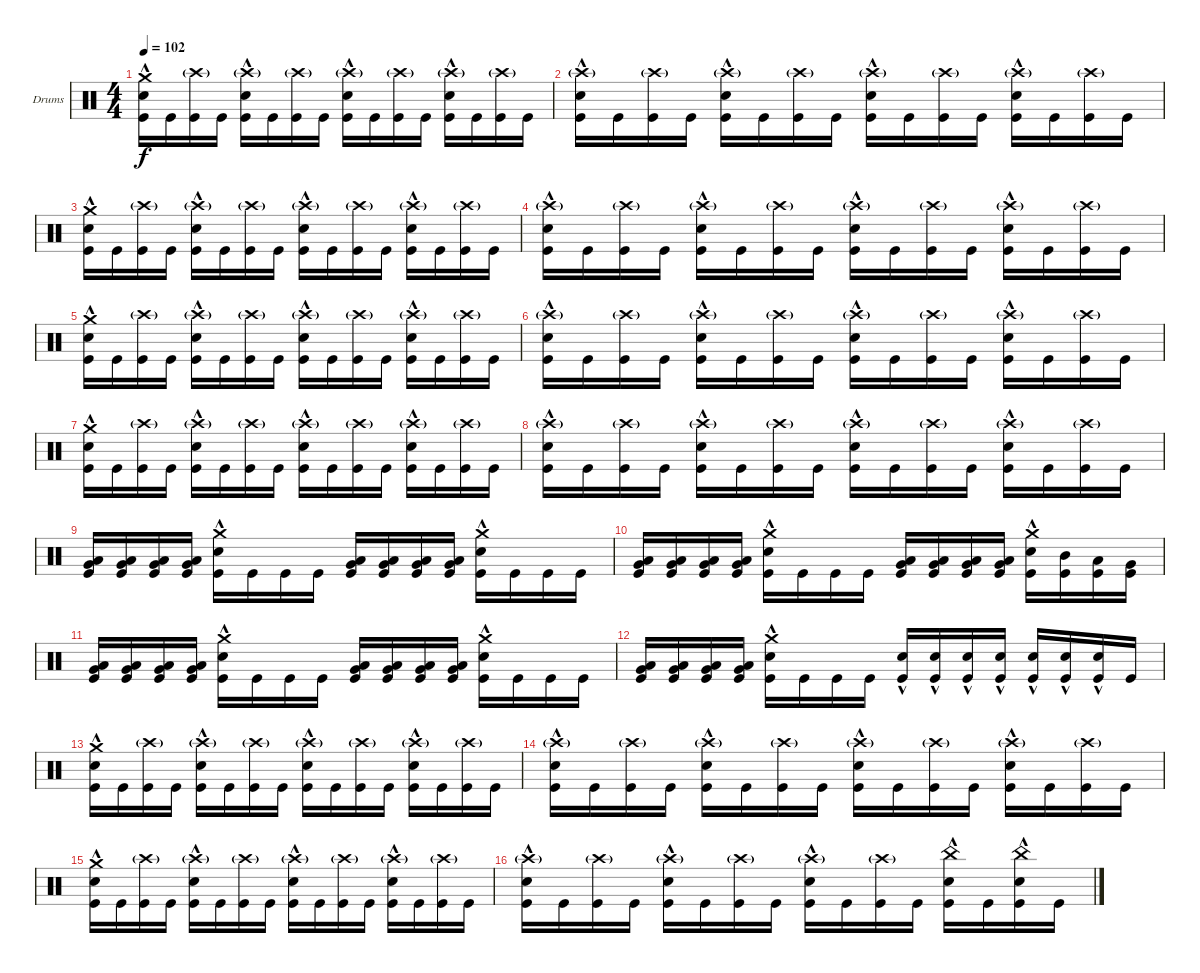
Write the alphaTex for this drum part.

\bracketExtendMode groupsimilarinstruments
\firstSystemTrackNameOrientation horizontal
\otherSystemsTrackNameOrientation horizontal
\track ("Drumkit" "Drums") {instrument percussion}
\staff {score}
\articulation defaults
\ts (4 4)
\tempo 102
\clef neutral
\scale
0.333333
\ks c
("Kick (hit)" "Snare (hit) 2"{hac} "Crash medium (hit)").16{dy f} "Kick (hit)".16 ("Kick (hit)" "Crash high (hit)"{g}).16 "Kick (hit)".16 ("Kick (hit)" "Snare (hit) 2"{hac} "Crash high (hit)"{g}).16 "Kick (hit)".16 ("Kick (hit)" "Crash high (hit)"{g}).16 "Kick (hit)".16 ("Kick (hit)" "Snare (hit) 2"{hac} "Crash high (hit)"{g}).16 "Kick (hit)".16 ("Kick (hit)" "Crash high (hit)"{g}).16 "Kick (hit)".16 ("Kick (hit)" "Snare (hit) 2"{hac} "Crash high (hit)"{g}).16 "Kick (hit)".16 ("Kick (hit)" "Crash high (hit)"{g}).16 "Kick (hit)".16 |
\scale
0.333333 ("Kick (hit)" "Snare (hit) 2"{hac} "Crash high (hit)"{g}).16 "Kick (hit)".16 ("Kick (hit)" "Crash high (hit)"{g}).16 "Kick (hit)".16 ("Kick (hit)" "Snare (hit) 2"{hac} "Crash high (hit)"{g}).16 "Kick (hit)".16 ("Kick (hit)" "Crash high (hit)"{g}).16 "Kick (hit)".16 ("Kick (hit)" "Snare (hit) 2"{hac} "Crash high (hit)"{g}).16 "Kick (hit)".16 ("Kick (hit)" "Crash high (hit)"{g}).16 "Kick (hit)".16 ("Kick (hit)" "Snare (hit) 2"{hac} "Crash high (hit)"{g}).16 "Kick (hit)".16 ("Kick (hit)" "Crash high (hit)"{g}).16 "Kick (hit)".16 |
\scale
0.333333 ("Kick (hit)" "Snare (hit) 2"{hac} "Crash medium (hit)").16 "Kick (hit)".16 ("Kick (hit)" "Crash high (hit)"{g}).16 "Kick (hit)".16 ("Kick (hit)" "Snare (hit) 2"{hac} "Crash high (hit)"{g}).16 "Kick (hit)".16 ("Kick (hit)" "Crash high (hit)"{g}).16 "Kick (hit)".16 ("Kick (hit)" "Snare (hit) 2"{hac} "Crash high (hit)"{g}).16 "Kick (hit)".16 ("Kick (hit)" "Crash high (hit)"{g}).16 "Kick (hit)".16 ("Kick (hit)" "Snare (hit) 2"{hac} "Crash high (hit)"{g}).16 "Kick (hit)".16 ("Kick (hit)" "Crash high (hit)"{g}).16 "Kick (hit)".16 |
\scale
0.333333 ("Kick (hit)" "Snare (hit) 2"{hac} "Crash high (hit)"{g}).16 "Kick (hit)".16 ("Kick (hit)" "Crash high (hit)"{g}).16 "Kick (hit)".16 ("Kick (hit)" "Snare (hit) 2"{hac} "Crash high (hit)"{g}).16 "Kick (hit)".16 ("Kick (hit)" "Crash high (hit)"{g}).16 "Kick (hit)".16 ("Kick (hit)" "Snare (hit) 2"{hac} "Crash high (hit)"{g}).16 "Kick (hit)".16 ("Kick (hit)" "Crash high (hit)"{g}).16 "Kick (hit)".16 ("Kick (hit)" "Snare (hit) 2"{hac} "Crash high (hit)"{g}).16 "Kick (hit)".16 ("Kick (hit)" "Crash high (hit)"{g}).16 "Kick (hit)".16 |
\scale
0.333333 ("Kick (hit)" "Snare (hit) 2"{hac} "Crash medium (hit)").16 "Kick (hit)".16 ("Kick (hit)" "Crash high (hit)"{g}).16 "Kick (hit)".16 ("Kick (hit)" "Snare (hit) 2"{hac} "Crash high (hit)"{g}).16 "Kick (hit)".16 ("Kick (hit)" "Crash high (hit)"{g}).16 "Kick (hit)".16 ("Kick (hit)" "Snare (hit) 2"{hac} "Crash high (hit)"{g}).16 "Kick (hit)".16 ("Kick (hit)" "Crash high (hit)"{g}).16 "Kick (hit)".16 ("Kick (hit)" "Snare (hit) 2"{hac} "Crash high (hit)"{g}).16 "Kick (hit)".16 ("Kick (hit)" "Crash high (hit)"{g}).16 "Kick (hit)".16 |
\scale
0.333333 ("Kick (hit)" "Snare (hit) 2"{hac} "Crash high (hit)"{g}).16 "Kick (hit)".16 ("Kick (hit)" "Crash high (hit)"{g}).16 "Kick (hit)".16 ("Kick (hit)" "Snare (hit) 2"{hac} "Crash high (hit)"{g}).16 "Kick (hit)".16 ("Kick (hit)" "Crash high (hit)"{g}).16 "Kick (hit)".16 ("Kick (hit)" "Snare (hit) 2"{hac} "Crash high (hit)"{g}).16 "Kick (hit)".16 ("Kick (hit)" "Crash high (hit)"{g}).16 "Kick (hit)".16 ("Kick (hit)" "Snare (hit) 2"{hac} "Crash high (hit)"{g}).16 "Kick (hit)".16 ("Kick (hit)" "Crash high (hit)"{g}).16 "Kick (hit)".16 |
\scale
0.333333 ("Kick (hit)" "Snare (hit) 2"{hac} "Crash medium (hit)").16 "Kick (hit)".16 ("Kick (hit)" "Crash high (hit)"{g}).16 "Kick (hit)".16 ("Kick (hit)" "Snare (hit) 2"{hac} "Crash high (hit)"{g}).16 "Kick (hit)".16 ("Kick (hit)" "Crash high (hit)"{g}).16 "Kick (hit)".16 ("Kick (hit)" "Snare (hit) 2"{hac} "Crash high (hit)"{g}).16 "Kick (hit)".16 ("Kick (hit)" "Crash high (hit)"{g}).16 "Kick (hit)".16 ("Kick (hit)" "Snare (hit) 2"{hac} "Crash high (hit)"{g}).16 "Kick (hit)".16 ("Kick (hit)" "Crash high (hit)"{g}).16 "Kick (hit)".16 |
\scale
0.333333 ("Kick (hit)" "Snare (hit) 2"{hac} "Crash high (hit)"{g}).16 "Kick (hit)".16 ("Kick (hit)" "Crash high (hit)"{g}).16 "Kick (hit)".16 ("Kick (hit)" "Snare (hit) 2"{hac} "Crash high (hit)"{g}).16 "Kick (hit)".16 ("Kick (hit)" "Crash high (hit)"{g}).16 "Kick (hit)".16 ("Kick (hit)" "Snare (hit) 2"{hac} "Crash high (hit)"{g}).16 "Kick (hit)".16 ("Kick (hit)" "Crash high (hit)"{g}).16 "Kick (hit)".16 ("Kick (hit)" "Snare (hit) 2"{hac} "Crash high (hit)"{g}).16 "Kick (hit)".16 ("Kick (hit)" "Crash high (hit)"{g}).16 "Kick (hit)".16 |
\scale
0.333333 ("Kick (hit)" "Very Low Tom (hit)" "Low Tom (hit)").16 ("Kick (hit)" "Very Low Tom (hit)" "Low Tom (hit)").16 ("Kick (hit)" "Very Low Tom (hit)" "Low Tom (hit)").16 ("Kick (hit)" "Very Low Tom (hit)" "Low Tom (hit)").16 ("Kick (hit)" "Snare (hit) 2"{hac} "Crash medium (hit)").16 "Kick (hit)".16 "Kick (hit)".16 "Kick (hit)".16 ("Kick (hit)" "Very Low Tom (hit)" "Low Tom (hit)").16 ("Kick (hit)" "Very Low Tom (hit)" "Low Tom (hit)").16 ("Kick (hit)" "Very Low Tom (hit)" "Low Tom (hit)").16 ("Kick (hit)" "Very Low Tom (hit)" "Low Tom (hit)").16 ("Kick (hit)" "Snare (hit) 2"{hac} "Crash medium (hit)").16 "Kick (hit)".16 "Kick (hit)".16 "Kick (hit)".16 |
\scale
0.333333 ("Kick (hit)" "Very Low Tom (hit)" "Low Tom (hit)").16 ("Kick (hit)" "Very Low Tom (hit)" "Low Tom (hit)").16 ("Kick (hit)" "Very Low Tom (hit)" "Low Tom (hit)").16 ("Kick (hit)" "Very Low Tom (hit)" "Low Tom (hit)").16 ("Kick (hit)" "Snare (hit) 2"{hac} "Crash medium (hit)").16 "Kick (hit)".16 "Kick (hit)".16 "Kick (hit)".16 ("Kick (hit)" "Very Low Tom (hit)" "Low Tom (hit)").16 ("Kick (hit)" "Very Low Tom (hit)" "Low Tom (hit)").16 ("Kick (hit)" "Very Low Tom (hit)" "Low Tom (hit)").16 ("Kick (hit)" "Very Low Tom (hit)" "Low Tom (hit)").16 ("Kick (hit)" "Snare (hit) 2"{hac} "Crash medium (hit)").16 ("Kick (hit)" "Mid Tom (hit)").16 ("Kick (hit)" "Low Tom (hit)").16 ("Kick (hit)" "Very Low Tom (hit)").16 |
\scale
0.333333 ("Kick (hit)" "Very Low Tom (hit)" "Low Tom (hit)").16 ("Kick (hit)" "Very Low Tom (hit)" "Low Tom (hit)").16 ("Kick (hit)" "Very Low Tom (hit)" "Low Tom (hit)").16 ("Kick (hit)" "Very Low Tom (hit)" "Low Tom (hit)").16 ("Kick (hit)" "Snare (hit) 2"{hac} "Crash medium (hit)").16 "Kick (hit)".16 "Kick (hit)".16 "Kick (hit)".16 ("Kick (hit)" "Very Low Tom (hit)" "Low Tom (hit)").16 ("Kick (hit)" "Very Low Tom (hit)" "Low Tom (hit)").16 ("Kick (hit)" "Very Low Tom (hit)" "Low Tom (hit)").16 ("Kick (hit)" "Very Low Tom (hit)" "Low Tom (hit)").16 ("Kick (hit)" "Snare (hit) 2"{hac} "Crash medium (hit)").16 "Kick (hit)".16 "Kick (hit)".16 "Kick (hit)".16 |
\scale
0.333333 ("Kick (hit)" "Very Low Tom (hit)" "Low Tom (hit)").16 ("Kick (hit)" "Very Low Tom (hit)" "Low Tom (hit)").16 ("Kick (hit)" "Very Low Tom (hit)" "Low Tom (hit)").16 ("Kick (hit)" "Very Low Tom (hit)" "Low Tom (hit)").16 ("Kick (hit)" "Snare (hit) 2"{hac} "Crash medium (hit)").16 "Kick (hit)".16 "Kick (hit)".16 "Kick (hit)".16 ("Kick (hit)" "Snare (hit) 2"{hac}).16 ("Kick (hit)" "Snare (hit) 2"{hac}).16 ("Kick (hit)" "Snare (hit) 2"{hac}).16 ("Kick (hit)" "Snare (hit) 2"{hac}).16 ("Kick (hit)" "Snare (hit) 2"{hac}).16 ("Kick (hit)" "Snare (hit) 2"{hac}).16 ("Kick (hit)" "Snare (hit) 2"{hac}).16 "Kick (hit)".16 |
\scale
0.333333 ("Kick (hit)" "Snare (hit) 2"{hac} "Crash medium (hit)").16 "Kick (hit)".16 ("Kick (hit)" "Crash high (hit)"{g}).16 "Kick (hit)".16 ("Kick (hit)" "Snare (hit) 2"{hac} "Crash high (hit)"{g}).16 "Kick (hit)".16 ("Kick (hit)" "Crash high (hit)"{g}).16 "Kick (hit)".16 ("Kick (hit)" "Snare (hit) 2"{hac} "Crash high (hit)"{g}).16 "Kick (hit)".16 ("Kick (hit)" "Crash high (hit)"{g}).16 "Kick (hit)".16 ("Kick (hit)" "Snare (hit) 2"{hac} "Crash high (hit)"{g}).16 "Kick (hit)".16 ("Kick (hit)" "Crash high (hit)"{g}).16 "Kick (hit)".16 |
\scale
0.333333 ("Kick (hit)" "Snare (hit) 2"{hac} "Crash high (hit)"{g}).16 "Kick (hit)".16 ("Kick (hit)" "Crash high (hit)"{g}).16 "Kick (hit)".16 ("Kick (hit)" "Snare (hit) 2"{hac} "Crash high (hit)"{g}).16 "Kick (hit)".16 ("Kick (hit)" "Crash high (hit)"{g}).16 "Kick (hit)".16 ("Kick (hit)" "Snare (hit) 2"{hac} "Crash high (hit)"{g}).16 "Kick (hit)".16 ("Kick (hit)" "Crash high (hit)"{g}).16 "Kick (hit)".16 ("Kick (hit)" "Snare (hit) 2"{hac} "Crash high (hit)"{g}).16 "Kick (hit)".16 ("Kick (hit)" "Crash high (hit)"{g}).16 "Kick (hit)".16 |
\scale
0.333333 ("Kick (hit)" "Snare (hit) 2"{hac} "Crash medium (hit)").16 "Kick (hit)".16 ("Kick (hit)" "Crash high (hit)"{g}).16 "Kick (hit)".16 ("Kick (hit)" "Snare (hit) 2"{hac} "Crash high (hit)"{g}).16 "Kick (hit)".16 ("Kick (hit)" "Crash high (hit)"{g}).16 "Kick (hit)".16 ("Kick (hit)" "Snare (hit) 2"{hac} "Crash high (hit)"{g}).16 "Kick (hit)".16 ("Kick (hit)" "Crash high (hit)"{g}).16 "Kick (hit)".16 ("Kick (hit)" "Snare (hit) 2"{hac} "Crash high (hit)"{g}).16 "Kick (hit)".16 ("Kick (hit)" "Crash high (hit)"{g}).16 "Kick (hit)".16 |
\scale
0.333333 ("Kick (hit)" "Snare (hit) 2"{hac} "Crash high (hit)"{g}).16 "Kick (hit)".16 ("Kick (hit)" "Crash high (hit)"{g}).16 "Kick (hit)".16 ("Kick (hit)" "Snare (hit) 2"{hac} "Crash high (hit)"{g}).16 "Kick (hit)".16 ("Kick (hit)" "Crash high (hit)"{g}).16 "Kick (hit)".16 ("Kick (hit)" "Snare (hit) 2"{hac} "Crash high (hit)"{g}).16 "Kick (hit)".16 ("Kick (hit)" "Crash high (hit)"{g}).16 "Kick (hit)".16 ("Kick (hit)" "Snare (hit) 2"{hac} "China (hit)").16 "Kick (hit)".16 ("Kick (hit)" "China (hit)" "Snare (hit) 2"{hac}).16 "Kick (hit)".16
